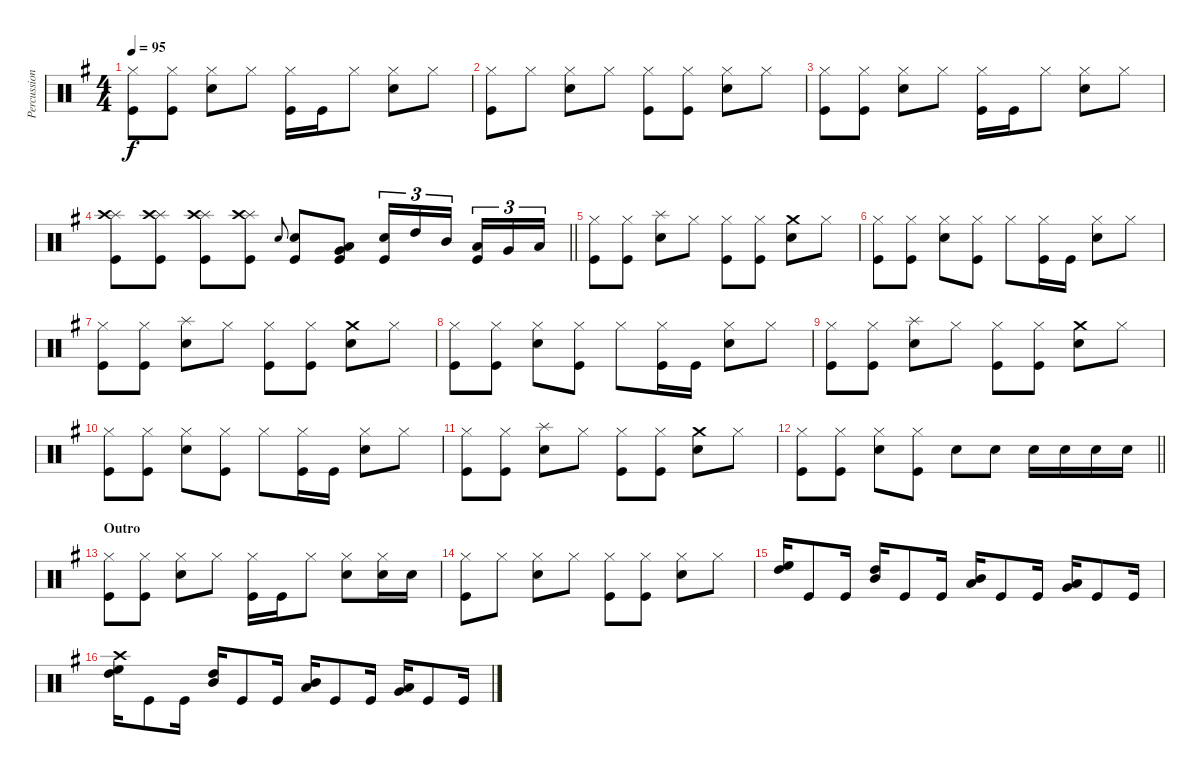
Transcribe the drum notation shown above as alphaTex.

\track ("Percussion" "Percussion") {instrument percussion}
\staff {score}
\articulation defaults
\ts (4 4)
\tempo 95
\clef neutral
\ks eminor
("Hi-Hat (closed)" "Kick (hit)").8{dy f} ("Hi-Hat (closed)" "Kick (hit)").8 ("Hi-Hat (closed)" "Snare (hit) 2").8 "Hi-Hat (closed)".8 ("Hi-Hat (closed)" "Kick (hit)").16 "Kick (hit)".16 "Hi-Hat (closed)".8 ("Hi-Hat (closed)" "Snare (hit) 2").8 "Hi-Hat (closed)".8 |
("Hi-Hat (closed)" "Kick (hit)").8 "Hi-Hat (closed)".8 ("Hi-Hat (closed)" "Snare (hit) 2").8 "Hi-Hat (closed)".8 ("Hi-Hat (closed)" "Kick (hit)").8 ("Hi-Hat (closed)" "Kick (hit)").8 ("Hi-Hat (closed)" "Snare (hit) 2").8 "Hi-Hat (closed)".8 |
("Hi-Hat (closed)" "Kick (hit)").8 ("Hi-Hat (closed)" "Kick (hit)").8 ("Hi-Hat (closed)" "Snare (hit) 2").8 "Hi-Hat (closed)".8 ("Hi-Hat (closed)" "Kick (hit)").16 "Kick (hit)".16 "Hi-Hat (closed)".8 ("Hi-Hat (closed)" "Snare (hit) 2").8 "Hi-Hat (closed)".8 |
\barLineRight lightlight
("Splash (hit)" "Crash high (hit)" "Kick (hit)").8 ("Splash (hit)" "Crash high (hit)" "Kick (hit)").8 ("Splash (hit)" "Crash high (hit)" "Kick (hit)").8 ("Splash (hit)" "Crash high (hit)" "Kick (hit)").8 "Snare (hit) 2".8{gr onbeat} ("Snare (hit) 2" "Kick (hit)").8 ("Very Low Tom (hit)" "Low Floor Tom (hit)" "Kick (hit)").8 ("Snare (hit) 2" "Kick (hit)").16{tu (3 2)} "High Tom (hit)".16{tu (3 2)} "Mid Tom (hit)".16{tu (3 2) beam splitsecondary} ("Low Tom (hit)" "Kick (hit)").16{tu (3 2)} "Very Low Tom (hit)".16{tu (3 2)} "Low Floor Tom (hit)".16{tu (3 2)} |
("Hi-Hat (closed)" "Kick (hit)").8 ("Hi-Hat (closed)" "Kick (hit)").8 ("Splash (hit)" "Snare (hit) 2").8 "Hi-Hat (closed)".8 ("Hi-Hat (closed)" "Kick (hit)").8 ("Hi-Hat (closed)" "Kick (hit)").8 ("Crash medium (hit)" "Snare (hit) 2").8 "Hi-Hat (closed)".8 |
("Hi-Hat (closed)" "Kick (hit)").8 ("Hi-Hat (closed)" "Kick (hit)").8 ("Hi-Hat (closed)" "Snare (hit) 2").8 ("Hi-Hat (closed)" "Kick (hit)").8 "Hi-Hat (closed)".8 ("Hi-Hat (closed)" "Kick (hit)").16 "Kick (hit)".16 ("Hi-Hat (closed)" "Snare (hit) 2").8 "Hi-Hat (closed)".8 |
("Hi-Hat (closed)" "Kick (hit)").8 ("Hi-Hat (closed)" "Kick (hit)").8 ("Splash (hit)" "Snare (hit) 2").8 "Hi-Hat (closed)".8 ("Hi-Hat (closed)" "Kick (hit)").8 ("Hi-Hat (closed)" "Kick (hit)").8 ("Crash medium (hit)" "Snare (hit) 2").8 "Hi-Hat (closed)".8 |
("Hi-Hat (closed)" "Kick (hit)").8 ("Hi-Hat (closed)" "Kick (hit)").8 ("Hi-Hat (closed)" "Snare (hit) 2").8 ("Hi-Hat (closed)" "Kick (hit)").8 "Hi-Hat (closed)".8 ("Hi-Hat (closed)" "Kick (hit)").16 "Kick (hit)".16 ("Hi-Hat (closed)" "Snare (hit) 2").8 "Hi-Hat (closed)".8 |
("Hi-Hat (closed)" "Kick (hit)").8 ("Hi-Hat (closed)" "Kick (hit)").8 ("Splash (hit)" "Snare (hit) 2").8 "Hi-Hat (closed)".8 ("Hi-Hat (closed)" "Kick (hit)").8 ("Hi-Hat (closed)" "Kick (hit)").8 ("Crash medium (hit)" "Snare (hit) 2").8 "Hi-Hat (closed)".8 |
("Hi-Hat (closed)" "Kick (hit)").8 ("Hi-Hat (closed)" "Kick (hit)").8 ("Hi-Hat (closed)" "Snare (hit) 2").8 ("Hi-Hat (closed)" "Kick (hit)").8 "Hi-Hat (closed)".8 ("Hi-Hat (closed)" "Kick (hit)").16 "Kick (hit)".16 ("Hi-Hat (closed)" "Snare (hit) 2").8 "Hi-Hat (closed)".8 |
("Hi-Hat (closed)" "Kick (hit)").8 ("Hi-Hat (closed)" "Kick (hit)").8 ("Splash (hit)" "Snare (hit) 2").8 "Hi-Hat (closed)".8 ("Hi-Hat (closed)" "Kick (hit)").8 ("Hi-Hat (closed)" "Kick (hit)").8 ("Crash medium (hit)" "Snare (hit) 2").8 "Hi-Hat (closed)".8 |
\barLineRight lightlight
("Hi-Hat (closed)" "Kick (hit)").8 ("Hi-Hat (closed)" "Kick (hit)").8 ("Hi-Hat (closed)" "Snare (hit) 2").8 ("Hi-Hat (closed)" "Kick (hit)").8 "Snare (hit) 2".8 "Snare (hit) 2".8 "Snare (hit) 2".16 "Snare (hit) 2".16 "Snare (hit) 2".16 "Snare (hit) 2".16 |
\section ("" "Outro")
("Hi-Hat (closed)" "Kick (hit)").8 ("Hi-Hat (closed)" "Kick (hit)").8 ("Hi-Hat (closed)" "Snare (hit) 2").8 "Hi-Hat (closed)".8 ("Hi-Hat (closed)" "Kick (hit)").16 "Kick (hit)".16 "Hi-Hat (closed)".8 ("Hi-Hat (closed)" "Snare (hit) 2").8 ("Hi-Hat (closed)" "Snare (hit) 2").16 "Snare (hit) 2".16 |
("Hi-Hat (closed)" "Kick (hit)").8 "Hi-Hat (closed)".8 ("Hi-Hat (closed)" "Snare (hit) 2").8 "Hi-Hat (closed)".8 ("Hi-Hat (closed)" "Kick (hit)").8 ("Hi-Hat (closed)" "Kick (hit)").8 ("Hi-Hat (closed)" "Snare (hit) 2").8 "Hi-Hat (closed)".8 |
("High Floor Tom (hit)" "High Tom (hit)").16 "Kick (hit)".8 "Kick (hit)".16 ("High Tom (hit)" "Mid Tom (hit)").16 "Kick (hit)".8 "Kick (hit)".16 ("Mid Tom (hit)" "Low Tom (hit)").16 "Kick (hit)".8 "Kick (hit)".16 ("Low Tom (hit)" "Very Low Tom (hit)").16 "Kick (hit)".8 "Kick (hit)".16 |
("Crash high (hit)" "High Floor Tom (hit)" "High Tom (hit)").16 "Kick (hit)".8 "Kick (hit)".16 ("High Tom (hit)" "Mid Tom (hit)").16 "Kick (hit)".8 "Kick (hit)".16 ("Mid Tom (hit)" "Low Tom (hit)").16 "Kick (hit)".8 "Kick (hit)".16 ("Low Tom (hit)" "Very Low Tom (hit)").16 "Kick (hit)".8 "Kick (hit)".16
